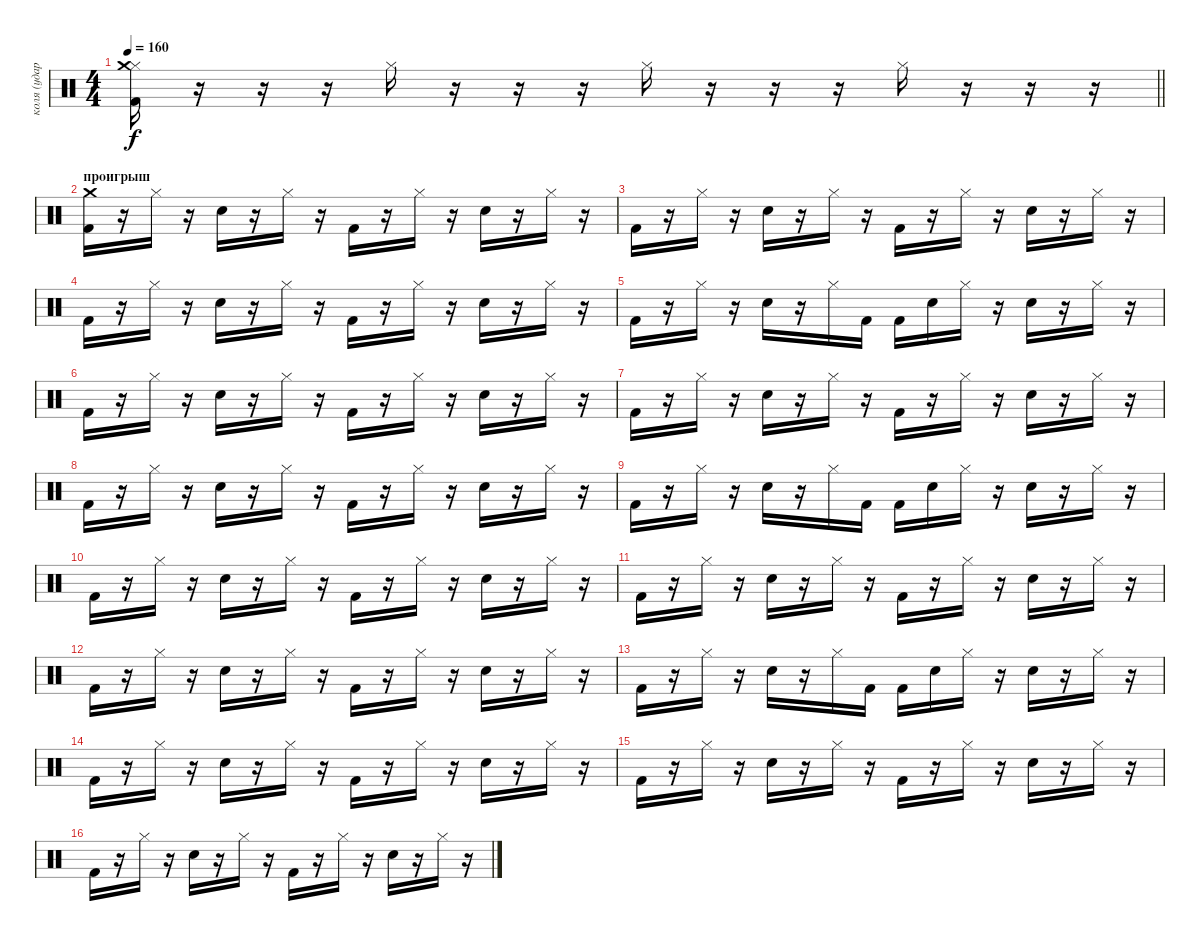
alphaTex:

\track ("коля (ударные)" "коля (удар") {instrument percussion}
\staff {score}
\articulation defaults
\ts (4 4)
\tempo 160
\clef neutral
\barLineRight lightlight
\ks c
("Kick (hit) 2" "Hi-Hat (closed)" "Crash medium (hit)").16{dy f} r.16 r.16 r.16 "Hi-Hat (closed)".16 r.16 r.16 r.16 "Hi-Hat (closed)".16 r.16 r.16 r.16 "Hi-Hat (closed)".16 r.16 r.16 r.16 |
\section ("" "проигрыш")
("Kick (hit) 2" "Crash medium (hit)").16 r.16 "Hi-Hat (closed)".16 r.16 "Snare (hit) 2".16 r.16 "Hi-Hat (closed)".16 r.16 "Kick (hit) 2".16 r.16 "Hi-Hat (closed)".16 r.16 "Snare (hit) 2".16 r.16 "Hi-Hat (closed)".16 r.16 |
"Kick (hit) 2".16 r.16 "Hi-Hat (closed)".16 r.16 "Snare (hit) 2".16 r.16 "Hi-Hat (closed)".16 r.16 "Kick (hit) 2".16 r.16 "Hi-Hat (closed)".16 r.16 "Snare (hit) 2".16 r.16 "Hi-Hat (closed)".16 r.16 |
"Kick (hit) 2".16 r.16 "Hi-Hat (closed)".16 r.16 "Snare (hit) 2".16 r.16 "Hi-Hat (closed)".16 r.16 "Kick (hit) 2".16 r.16 "Hi-Hat (closed)".16 r.16 "Snare (hit) 2".16 r.16 "Hi-Hat (closed)".16 r.16 |
"Kick (hit) 2".16 r.16 "Hi-Hat (closed)".16 r.16 "Snare (hit) 2".16 r.16 "Hi-Hat (closed)".16 "Kick (hit) 2".16 "Kick (hit) 2".16 "Snare (hit) 2".16 "Hi-Hat (closed)".16 r.16 "Snare (hit) 2".16 r.16 "Hi-Hat (closed)".16 r.16 |
"Kick (hit) 2".16 r.16 "Hi-Hat (closed)".16 r.16 "Snare (hit) 2".16 r.16 "Hi-Hat (closed)".16 r.16 "Kick (hit) 2".16 r.16 "Hi-Hat (closed)".16 r.16 "Snare (hit) 2".16 r.16 "Hi-Hat (closed)".16 r.16 |
"Kick (hit) 2".16 r.16 "Hi-Hat (closed)".16 r.16 "Snare (hit) 2".16 r.16 "Hi-Hat (closed)".16 r.16 "Kick (hit) 2".16 r.16 "Hi-Hat (closed)".16 r.16 "Snare (hit) 2".16 r.16 "Hi-Hat (closed)".16 r.16 |
"Kick (hit) 2".16 r.16 "Hi-Hat (closed)".16 r.16 "Snare (hit) 2".16 r.16 "Hi-Hat (closed)".16 r.16 "Kick (hit) 2".16 r.16 "Hi-Hat (closed)".16 r.16 "Snare (hit) 2".16 r.16 "Hi-Hat (closed)".16 r.16 |
"Kick (hit) 2".16 r.16 "Hi-Hat (closed)".16 r.16 "Snare (hit) 2".16 r.16 "Hi-Hat (closed)".16 "Kick (hit) 2".16 "Kick (hit) 2".16 "Snare (hit) 2".16 "Hi-Hat (closed)".16 r.16 "Snare (hit) 2".16 r.16 "Hi-Hat (closed)".16 r.16 |
"Kick (hit) 2".16 r.16 "Hi-Hat (closed)".16 r.16 "Snare (hit) 2".16 r.16 "Hi-Hat (closed)".16 r.16 "Kick (hit) 2".16 r.16 "Hi-Hat (closed)".16 r.16 "Snare (hit) 2".16 r.16 "Hi-Hat (closed)".16 r.16 |
"Kick (hit) 2".16 r.16 "Hi-Hat (closed)".16 r.16 "Snare (hit) 2".16 r.16 "Hi-Hat (closed)".16 r.16 "Kick (hit) 2".16 r.16 "Hi-Hat (closed)".16 r.16 "Snare (hit) 2".16 r.16 "Hi-Hat (closed)".16 r.16 |
"Kick (hit) 2".16 r.16 "Hi-Hat (closed)".16 r.16 "Snare (hit) 2".16 r.16 "Hi-Hat (closed)".16 r.16 "Kick (hit) 2".16 r.16 "Hi-Hat (closed)".16 r.16 "Snare (hit) 2".16 r.16 "Hi-Hat (closed)".16 r.16 |
"Kick (hit) 2".16 r.16 "Hi-Hat (closed)".16 r.16 "Snare (hit) 2".16 r.16 "Hi-Hat (closed)".16 "Kick (hit) 2".16 "Kick (hit) 2".16 "Snare (hit) 2".16 "Hi-Hat (closed)".16 r.16 "Snare (hit) 2".16 r.16 "Hi-Hat (closed)".16 r.16 |
"Kick (hit) 2".16 r.16 "Hi-Hat (closed)".16 r.16 "Snare (hit) 2".16 r.16 "Hi-Hat (closed)".16 r.16 "Kick (hit) 2".16 r.16 "Hi-Hat (closed)".16 r.16 "Snare (hit) 2".16 r.16 "Hi-Hat (closed)".16 r.16 |
"Kick (hit) 2".16 r.16 "Hi-Hat (closed)".16 r.16 "Snare (hit) 2".16 r.16 "Hi-Hat (closed)".16 r.16 "Kick (hit) 2".16 r.16 "Hi-Hat (closed)".16 r.16 "Snare (hit) 2".16 r.16 "Hi-Hat (closed)".16 r.16 |
"Kick (hit) 2".16 r.16 "Hi-Hat (closed)".16 r.16 "Snare (hit) 2".16 r.16 "Hi-Hat (closed)".16 r.16 "Kick (hit) 2".16 r.16 "Hi-Hat (closed)".16 r.16 "Snare (hit) 2".16 r.16 "Hi-Hat (closed)".16 r.16
